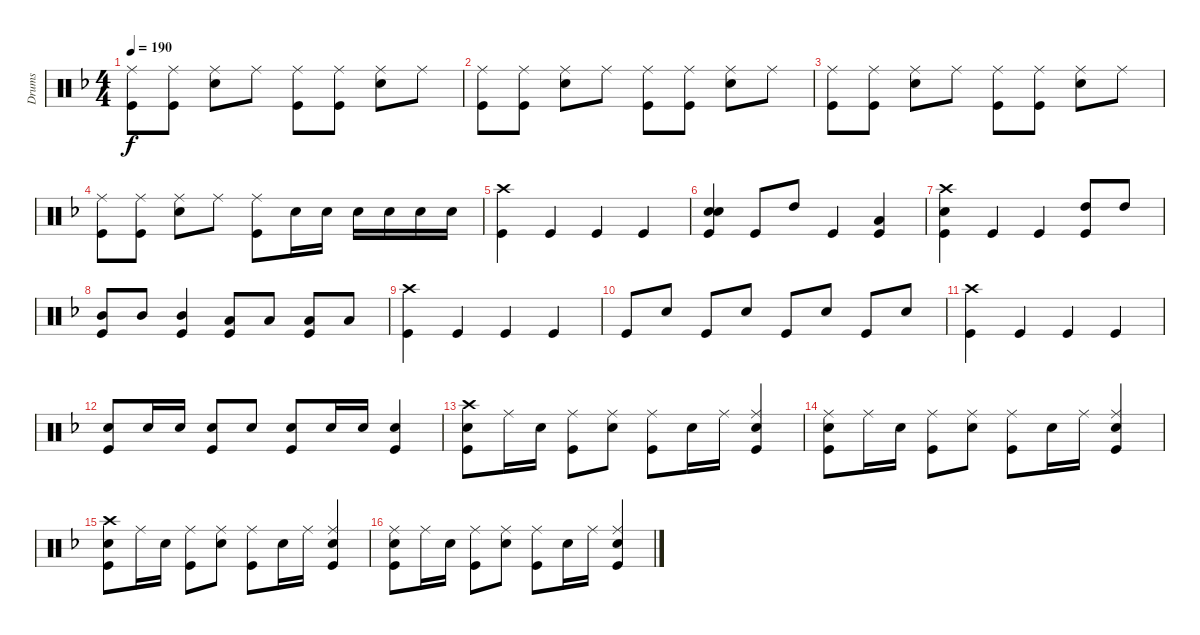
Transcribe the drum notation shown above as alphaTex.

\track ("Drums" "Drums") {instrument percussion}
\staff {score}
\articulation defaults
\ts (4 4)
\tempo 190
\clef neutral
\ks f
("Kick (hit)" "Ride (middle)").8{dy f} ("Ride (middle)" "Kick (hit)").8 ("Snare (hit) 2" "Ride (middle)").8 "Ride (middle)".8 ("Ride (middle)" "Kick (hit)").8 ("Ride (middle)" "Kick (hit)").8 ("Ride (middle)" "Snare (hit) 2").8 "Ride (middle)".8 |
("Kick (hit)" "Ride (middle)").8 ("Ride (middle)" "Kick (hit)").8 ("Snare (hit) 2" "Ride (middle)").8 "Ride (middle)".8 ("Ride (middle)" "Kick (hit)").8 ("Ride (middle)" "Kick (hit)").8 ("Ride (middle)" "Snare (hit) 2").8 "Ride (middle)".8 |
("Kick (hit)" "Ride (middle)").8 ("Ride (middle)" "Kick (hit)").8 ("Snare (hit) 2" "Ride (middle)").8 "Ride (middle)".8 ("Ride (middle)" "Kick (hit)").8 ("Ride (middle)" "Kick (hit)").8 ("Ride (middle)" "Snare (hit) 2").8 "Ride (middle)".8 |
("Kick (hit)" "Ride (middle)").8 ("Ride (middle)" "Kick (hit)").8 ("Snare (hit) 2" "Ride (middle)").8 "Ride (middle)".8 ("Ride (middle)" "Kick (hit)").8 "Snare (hit) 2".16 "Snare (hit) 2".16 "Snare (hit) 2".16 "Snare (hit) 2".16 "Snare (hit) 2".16 "Snare (hit) 2".16 |
("Crash high (hit)" "Kick (hit)").4 "Kick (hit)".4 "Kick (hit)".4 "Kick (hit)".4 |
("Snare (hit) 2" "Snare (hit) 2" "Kick (hit)").4 "Kick (hit)".8 "High Tom (hit)".8 "Kick (hit)".4 ("Kick (hit)" "Low Tom (hit)").4 |
("Kick (hit)" "Snare (hit) 2" "Crash high (hit)").4 "Kick (hit)".4 "Kick (hit)".4 ("Kick (hit)" "High Tom (hit)").8 "High Tom (hit)".8 |
("Kick (hit)" "Mid Tom (hit)").8 "Mid Tom (hit)".8 ("Kick (hit)" "Mid Tom (hit)").4 ("Low Tom (hit)" "Kick (hit)").8 "Low Tom (hit)".8 ("Low Tom (hit)" "Kick (hit)").8 "Low Tom (hit)".8 |
("Kick (hit)" "Crash high (hit)").4 "Kick (hit)".4 "Kick (hit)".4 "Kick (hit)".4 |
"Kick (hit)".8 "Snare (hit) 2".8 "Kick (hit)".8 "Snare (hit) 2".8 "Kick (hit)".8 "Snare (hit) 2".8 "Kick (hit)".8 "Snare (hit) 2".8 |
("Kick (hit)" "Crash high (hit)").4 "Kick (hit)".4 "Kick (hit)".4 "Kick (hit)".4 |
("Snare (hit) 2" "Kick (hit)").8 "Snare (hit) 2".16 "Snare (hit) 2".16 ("Snare (hit) 2" "Kick (hit)").8 "Snare (hit) 2".8 ("Snare (hit) 2" "Kick (hit)").8 "Snare (hit) 2".16 "Snare (hit) 2".16 ("Snare (hit) 2" "Kick (hit)").4 |
("Snare (hit) 2" "Kick (hit)" "Crash high (hit)").8 "Ride (middle)".16 "Snare (hit) 2".16 ("Kick (hit)" "Ride (middle)").8 ("Ride (middle)" "Snare (hit) 2").8 ("Kick (hit)" "Ride (middle)").8 "Snare (hit) 2".16 "Ride (middle)".16 ("Snare (hit) 2" "Kick (hit)" "Ride (middle)").4 |
("Snare (hit) 2" "Kick (hit)" "Ride (middle)").8 "Ride (middle)".16 "Snare (hit) 2".16 ("Kick (hit)" "Ride (middle)").8 ("Ride (middle)" "Snare (hit) 2").8 ("Kick (hit)" "Ride (middle)").8 "Snare (hit) 2".16 "Ride (middle)".16 ("Snare (hit) 2" "Kick (hit)" "Ride (middle)").4 |
("Snare (hit) 2" "Kick (hit)" "Crash high (hit)").8 "Ride (middle)".16 "Snare (hit) 2".16 ("Kick (hit)" "Ride (middle)").8 ("Ride (middle)" "Snare (hit) 2").8 ("Kick (hit)" "Ride (middle)").8 "Snare (hit) 2".16 "Ride (middle)".16 ("Snare (hit) 2" "Kick (hit)" "Ride (middle)").4 |
("Snare (hit) 2" "Kick (hit)" "Ride (middle)").8 "Ride (middle)".16 "Snare (hit) 2".16 ("Kick (hit)" "Ride (middle)").8 ("Ride (middle)" "Snare (hit) 2").8 ("Kick (hit)" "Ride (middle)").8 "Snare (hit) 2".16 "Ride (middle)".16 ("Snare (hit) 2" "Kick (hit)" "Ride (middle)").4
